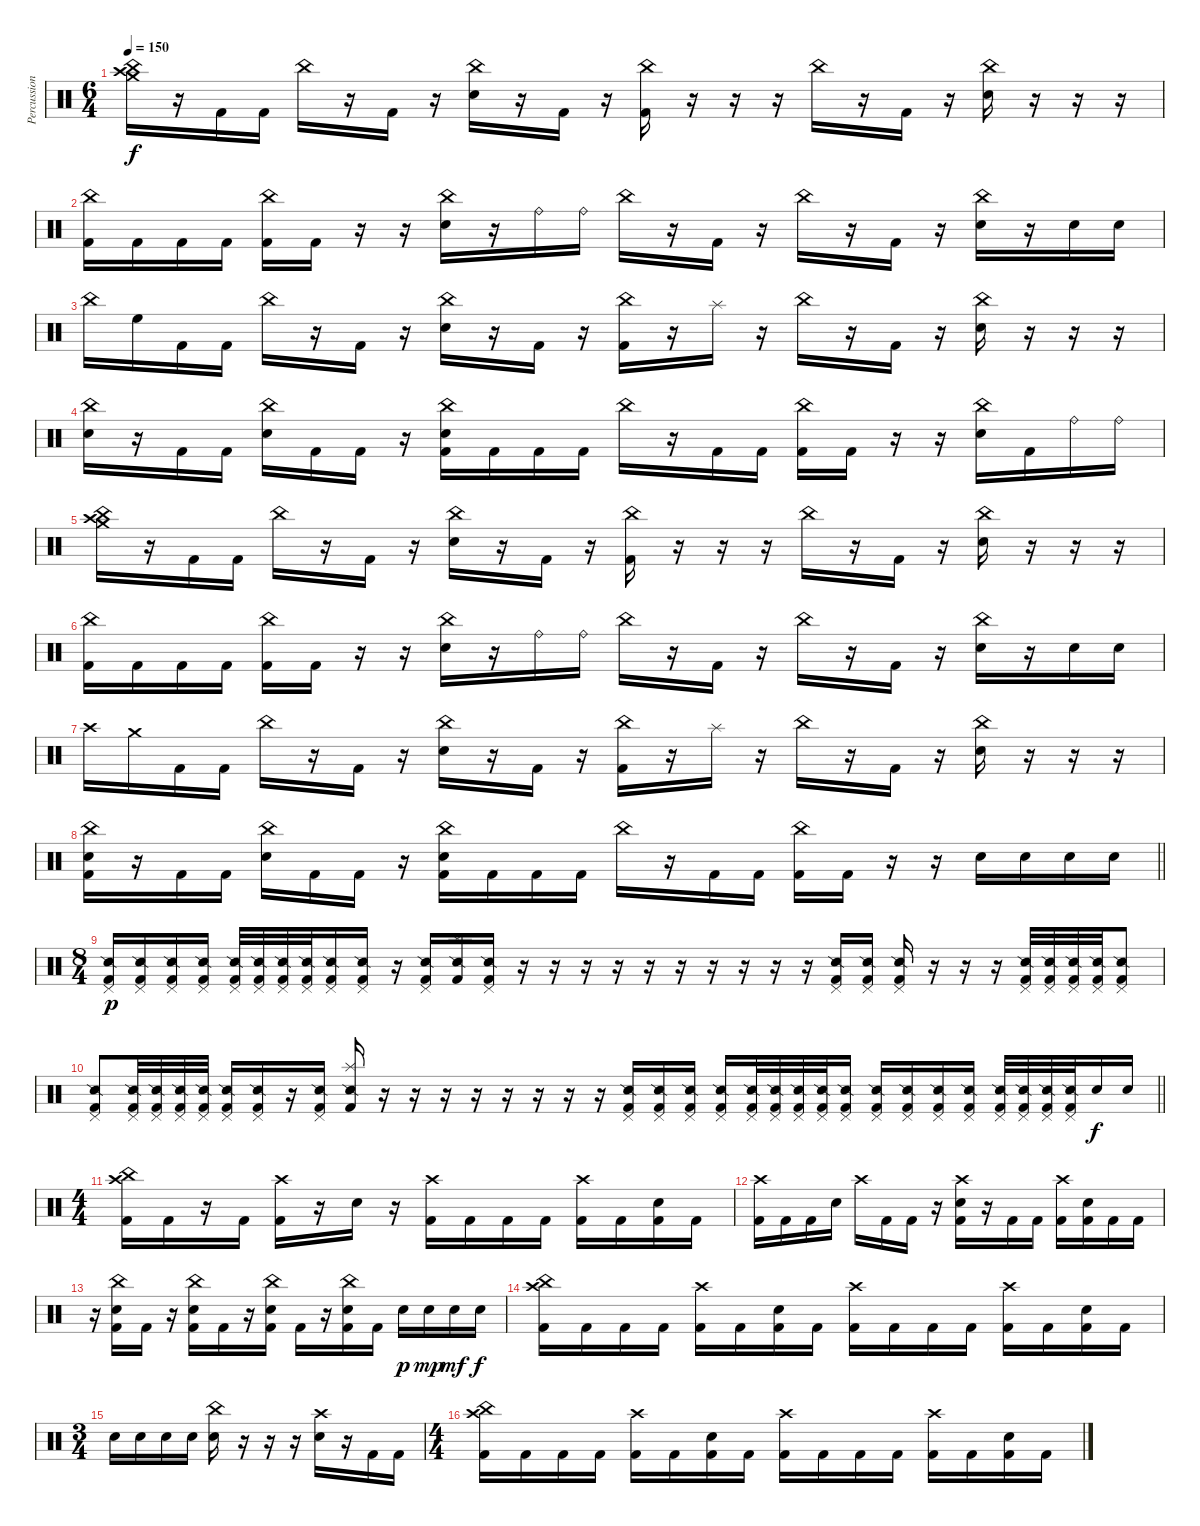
\track ("Percussion" "Percussion") {instrument percussion}
\staff {score}
\articulation defaults
\ts (6 4)
\tempo 150
\clef neutral
\ks c
("Crash high (hit)" "Crash medium (hit)" "China (hit)").16{dy f} r.16 "Kick (hit) 2".16 "Kick (hit) 2".16 "China (hit)".16 r.16 "Kick (hit) 2".16 r.16 ("China (hit)" "Electric Snare (hit)").16 r.16 "Kick (hit) 2".16 r.16 ("China (hit)" "Kick (hit) 2").16 r.16 r.16 r.16 "China (hit)".16 r.16 "Kick (hit) 2".16 r.16 ("China (hit)" "Electric Snare (hit)").16 r.16 r.16 r.16 |
("China (hit)" "Kick (hit) 2").16 "Kick (hit) 2".16 "Kick (hit) 2".16 "Kick (hit) 2".16 ("China (hit)" "Kick (hit) 2").16 "Kick (hit) 2".16 r.16 r.16 ("China (hit)" "Electric Snare (hit)").16 r.16 "Ride (bell)".16 "Ride (bell)".16 "China (hit)".16 r.16 "Kick (hit) 2".16 r.16 "China (hit)".16 r.16 "Kick (hit) 2".16 r.16 ("China (hit)" "Electric Snare (hit)").16 r.16 "Electric Snare (hit)".16 "Electric Snare (hit)".16 |
"China (hit)".16 "High Floor Tom (hit)".16 "Kick (hit) 2".16 "Kick (hit) 2".16 "China (hit)".16 r.16 "Kick (hit) 2".16 r.16 ("China (hit)" "Electric Snare (hit)").16 r.16 "Kick (hit) 2".16 r.16 ("China (hit)" "Kick (hit) 2").16 r.16 "Splash (hit)".16 r.16 "China (hit)".16 r.16 "Kick (hit) 2".16 r.16 ("China (hit)" "Electric Snare (hit)").16 r.16 r.16 r.16 |
("China (hit)" "Electric Snare (hit)").16 r.16 "Kick (hit) 2".16 "Kick (hit) 2".16 ("China (hit)" "Electric Snare (hit)").16 "Kick (hit) 2".16 "Kick (hit) 2".16 r.16 ("China (hit)" "Electric Snare (hit)" "Kick (hit) 2").16 "Kick (hit) 2".16 "Kick (hit) 2".16 "Kick (hit) 2".16 "China (hit)".16 r.16 "Kick (hit) 2".16 "Kick (hit) 2".16 ("China (hit)" "Kick (hit) 2").16 "Kick (hit) 2".16 r.16 r.16 ("China (hit)" "Electric Snare (hit)").16 "Kick (hit) 2".16 "Ride (bell)".16 "Ride (bell)".16 |
("Crash high (hit)" "Crash medium (hit)" "China (hit)").16 r.16 "Kick (hit) 2".16 "Kick (hit) 2".16 "China (hit)".16 r.16 "Kick (hit) 2".16 r.16 ("China (hit)" "Electric Snare (hit)").16 r.16 "Kick (hit) 2".16 r.16 ("China (hit)" "Kick (hit) 2").16 r.16 r.16 r.16 "China (hit)".16 r.16 "Kick (hit) 2".16 r.16 ("China (hit)" "Electric Snare (hit)").16 r.16 r.16 r.16 |
("China (hit)" "Kick (hit) 2").16 "Kick (hit) 2".16 "Kick (hit) 2".16 "Kick (hit) 2".16 ("China (hit)" "Kick (hit) 2").16 "Kick (hit) 2".16 r.16 r.16 ("China (hit)" "Electric Snare (hit)").16 r.16 "Ride (bell)".16 "Ride (bell)".16 "China (hit)".16 r.16 "Kick (hit) 2".16 r.16 "China (hit)".16 r.16 "Kick (hit) 2".16 r.16 ("China (hit)" "Electric Snare (hit)").16 r.16 "Electric Snare (hit)".16 "Electric Snare (hit)".16 |
"Crash high (hit)".16 "Crash medium (hit)".16 "Kick (hit) 2".16 "Kick (hit) 2".16 "China (hit)".16 r.16 "Kick (hit) 2".16 r.16 ("China (hit)" "Electric Snare (hit)").16 r.16 "Kick (hit) 2".16 r.16 ("China (hit)" "Kick (hit) 2").16 r.16 "Splash (hit)".16 r.16 "China (hit)".16 r.16 "Kick (hit) 2".16 r.16 ("China (hit)" "Electric Snare (hit)").16 r.16 r.16 r.16 |
\barLineRight lightlight
("China (hit)" "Electric Snare (hit)" "Kick (hit) 2").16 r.16 "Kick (hit) 2".16 "Kick (hit) 2".16 ("China (hit)" "Electric Snare (hit)").16 "Kick (hit) 2".16 "Kick (hit) 2".16 r.16 ("China (hit)" "Electric Snare (hit)" "Kick (hit) 2").16 "Kick (hit) 2".16 "Kick (hit) 2".16 "Kick (hit) 2".16 "China (hit)".16 r.16 "Kick (hit) 2".16 "Kick (hit) 2".16 ("China (hit)" "Kick (hit) 2").16 "Kick (hit) 2".16 r.16 r.16 "Electric Snare (hit)".16 "Electric Snare (hit)".16 "Electric Snare (hit)".16 "Electric Snare (hit)".16 |
\ts (8 4)
("Pedal Hi-Hat (hit)" "Kick (hit) 2" "Snare (side stick) 2").16{dy p} ("Pedal Hi-Hat (hit)" "Kick (hit) 2" "Snare (side stick) 2").16 ("Pedal Hi-Hat (hit)" "Kick (hit) 2" "Snare (side stick) 2").16 ("Pedal Hi-Hat (hit)" "Kick (hit) 2" "Snare (side stick) 2").16 ("Pedal Hi-Hat (hit)" "Kick (hit) 2" "Snare (side stick) 2").32 ("Pedal Hi-Hat (hit)" "Kick (hit) 2" "Snare (side stick) 2").32 ("Pedal Hi-Hat (hit)" "Kick (hit) 2" "Snare (side stick) 2").32 ("Pedal Hi-Hat (hit)" "Kick (hit) 2" "Snare (side stick) 2").32 ("Pedal Hi-Hat (hit)" "Kick (hit) 2" "Snare (side stick) 2").16 ("Pedal Hi-Hat (hit)" "Kick (hit) 2" "Snare (side stick) 2").16 r.16 ("Pedal Hi-Hat (hit)" "Kick (hit) 2" "Snare (side stick) 2").16 ("Splash (hit)" "Kick (hit) 2" "Snare (side stick) 2").16 ("Pedal Hi-Hat (hit)" "Kick (hit) 2" "Snare (side stick) 2").16 r.16 r.16 r.16 r.16 r.16 r.16 r.16 r.16 r.16 r.16 ("Pedal Hi-Hat (hit)" "Kick (hit) 2" "Snare (side stick) 2").16 ("Pedal Hi-Hat (hit)" "Kick (hit) 2" "Snare (side stick) 2").16 ("Pedal Hi-Hat (hit)" "Kick (hit) 2" "Snare (side stick) 2").16 r.16 r.16 r.16 ("Pedal Hi-Hat (hit)" "Kick (hit) 2" "Snare (side stick) 2").32 ("Pedal Hi-Hat (hit)" "Kick (hit) 2" "Snare (side stick) 2").32 ("Pedal Hi-Hat (hit)" "Kick (hit) 2" "Snare (side stick) 2").32 ("Pedal Hi-Hat (hit)" "Kick (hit) 2" "Snare (side stick) 2").32 ("Pedal Hi-Hat (hit)" "Kick (hit) 2" "Snare (side stick) 2").8 |
\barLineRight lightlight
("Pedal Hi-Hat (hit)" "Kick (hit) 2" "Snare (side stick) 2").8 ("Pedal Hi-Hat (hit)" "Kick (hit) 2" "Snare (side stick) 2").32 ("Pedal Hi-Hat (hit)" "Kick (hit) 2" "Snare (side stick) 2").32 ("Pedal Hi-Hat (hit)" "Kick (hit) 2" "Snare (side stick) 2").32 ("Pedal Hi-Hat (hit)" "Kick (hit) 2" "Snare (side stick) 2").32 ("Pedal Hi-Hat (hit)" "Kick (hit) 2" "Snare (side stick) 2").16 ("Pedal Hi-Hat (hit)" "Kick (hit) 2" "Snare (side stick) 2").16 r.16 ("Pedal Hi-Hat (hit)" "Kick (hit) 2" "Snare (side stick) 2").16 ("Splash (hit)" "Kick (hit) 2" "Snare (side stick) 2").16 r.16 r.16 r.16 r.16 r.16 r.16 r.16 r.16 ("Pedal Hi-Hat (hit)" "Kick (hit) 2" "Snare (side stick) 2").16 ("Pedal Hi-Hat (hit)" "Kick (hit) 2" "Snare (side stick) 2").16 ("Pedal Hi-Hat (hit)" "Kick (hit) 2" "Snare (side stick) 2").16 ("Pedal Hi-Hat (hit)" "Kick (hit) 2" "Snare (side stick) 2").16 ("Pedal Hi-Hat (hit)" "Kick (hit) 2" "Snare (side stick) 2").32 ("Pedal Hi-Hat (hit)" "Kick (hit) 2" "Snare (side stick) 2").32 ("Pedal Hi-Hat (hit)" "Kick (hit) 2" "Snare (side stick) 2").32 ("Pedal Hi-Hat (hit)" "Kick (hit) 2" "Snare (side stick) 2").32 ("Pedal Hi-Hat (hit)" "Kick (hit) 2" "Snare (side stick) 2").16 ("Pedal Hi-Hat (hit)" "Kick (hit) 2" "Snare (side stick) 2").16 ("Pedal Hi-Hat (hit)" "Kick (hit) 2" "Snare (side stick) 2").16 ("Pedal Hi-Hat (hit)" "Kick (hit) 2" "Snare (side stick) 2").16 ("Pedal Hi-Hat (hit)" "Kick (hit) 2" "Snare (side stick) 2").16 ("Pedal Hi-Hat (hit)" "Kick (hit) 2" "Snare (side stick) 2").32 ("Pedal Hi-Hat (hit)" "Kick (hit) 2" "Snare (side stick) 2").32 ("Pedal Hi-Hat (hit)" "Kick (hit) 2" "Snare (side stick) 2").32 ("Pedal Hi-Hat (hit)" "Kick (hit) 2" "Snare (side stick) 2").32 "Electric Snare (hit)".16{dy f} "Electric Snare (hit)".16 |
\ts (4 4)
("China (hit)" "Crash high (hit)" "Kick (hit) 2").16 "Kick (hit) 2".16 r.16 "Kick (hit) 2".16 ("Crash high (hit)" "Kick (hit) 2").16 r.16 "Electric Snare (hit)".16 r.16 ("Crash high (hit)" "Kick (hit) 2").16 "Kick (hit) 2".16 "Kick (hit) 2".16 "Kick (hit) 2".16 ("Crash high (hit)" "Kick (hit) 2").16 "Kick (hit) 2".16 ("Electric Snare (hit)" "Kick (hit) 2").16 "Kick (hit) 2".16 |
("Crash high (hit)" "Kick (hit) 2").16 "Kick (hit) 2".16 "Kick (hit) 2".16 "Electric Snare (hit)".16 "Crash high (hit)".16 "Kick (hit) 2".16 "Kick (hit) 2".16 r.16 ("Crash high (hit)" "Electric Snare (hit)" "Kick (hit) 2").16 r.16 "Kick (hit) 2".16 "Kick (hit) 2".16 ("Crash high (hit)" "Kick (hit) 2").16 ("Electric Snare (hit)" "Kick (hit) 2").16 "Kick (hit) 2".16 "Kick (hit) 2".16 |
r.16 ("China (hit)" "Electric Snare (hit)" "Kick (hit) 2").16 "Kick (hit) 2".16 r.16 ("China (hit)" "Electric Snare (hit)" "Kick (hit) 2").16 "Kick (hit) 2".16 r.16 ("China (hit)" "Electric Snare (hit)" "Kick (hit) 2").16 "Kick (hit) 2".16 r.16 ("China (hit)" "Electric Snare (hit)" "Kick (hit) 2").16 "Kick (hit) 2".16 "Electric Snare (hit)".16{dy p} "Electric Snare (hit)".16{dy mp} "Electric Snare (hit)".16{dy mf} "Electric Snare (hit)".16{dy f} |
("China (hit)" "Crash high (hit)" "Kick (hit) 2").16 "Kick (hit) 2".16 "Kick (hit) 2".16 "Kick (hit) 2".16 ("Crash high (hit)" "Kick (hit) 2").16 "Kick (hit) 2".16 ("Electric Snare (hit)" "Kick (hit) 2").16 "Kick (hit) 2".16 ("Crash high (hit)" "Kick (hit) 2").16 "Kick (hit) 2".16 "Kick (hit) 2".16 "Kick (hit) 2".16 ("Crash high (hit)" "Kick (hit) 2").16 "Kick (hit) 2".16 ("Electric Snare (hit)" "Kick (hit) 2").16 "Kick (hit) 2".16 |
\ts (3 4)
"Electric Snare (hit)".16 "Electric Snare (hit)".16 "Electric Snare (hit)".16 "Electric Snare (hit)".16 ("China (hit)" "Electric Snare (hit)").16 r.16 r.16 r.16 ("Crash high (hit)" "Electric Snare (hit)").16 r.16 "Kick (hit) 2".16 "Kick (hit) 2".16 |
\ts (4 4)
("China (hit)" "Crash high (hit)" "Kick (hit) 2").16 "Kick (hit) 2".16 "Kick (hit) 2".16 "Kick (hit) 2".16 ("Crash high (hit)" "Kick (hit) 2").16 "Kick (hit) 2".16 ("Electric Snare (hit)" "Kick (hit) 2").16 "Kick (hit) 2".16 ("Crash high (hit)" "Kick (hit) 2").16 "Kick (hit) 2".16 "Kick (hit) 2".16 "Kick (hit) 2".16 ("Crash high (hit)" "Kick (hit) 2").16 "Kick (hit) 2".16 ("Electric Snare (hit)" "Kick (hit) 2").16 "Kick (hit) 2".16
